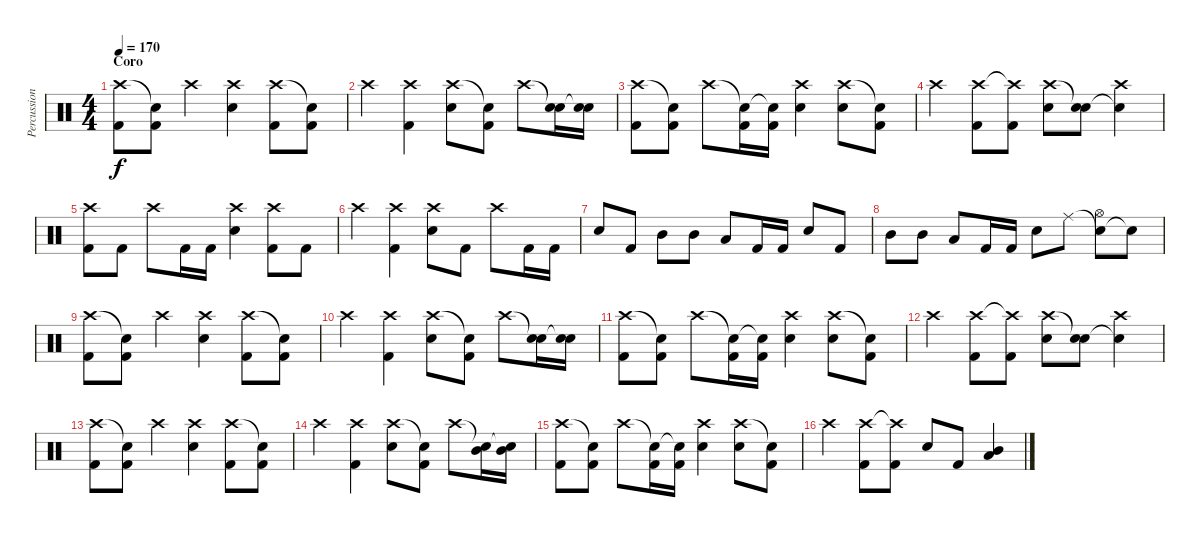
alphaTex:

\track ("Percussion" "Percussion") {instrument percussion}
\staff {score}
\articulation defaults
\ts (4 4)
\section ("" "Coro")
\tempo 170
\clef neutral
\ks c
("Crash high (hit)" "Kick (hit) 2").8{dy f} ("Snare (hit)"{t} "Kick (hit) 2").8 "Crash high (hit)".4 ("Crash high (hit)" "Electric Snare (hit)").4 ("Crash high (hit)" "Kick (hit) 2").8 ("Snare (hit)"{t} "Kick (hit) 2").8 |
"Crash high (hit)".4 ("Crash high (hit)" "Kick (hit) 2").4 ("Crash high (hit)" "Electric Snare (hit)").8 ("Snare (hit)"{t} "Kick (hit) 2").8 "Crash high (hit)".8 ("Snare (hit)"{t} "Electric Snare (hit)").16 ("Snare (hit)"{t} "Electric Snare (hit)").16 |
("Crash high (hit)" "Kick (hit) 2").8 ("Snare (hit)"{t} "Kick (hit) 2").8 "Crash high (hit)".8 ("Snare (hit)"{t} "Kick (hit) 2").16 ("Snare (hit)"{t} "Kick (hit) 2").16 ("Crash high (hit)" "Electric Snare (hit)").4 ("Crash high (hit)" "Electric Snare (hit)").8 ("Snare (hit)"{t} "Kick (hit) 2").8 |
"Crash high (hit)".4 ("Crash high (hit)" "Kick (hit) 2").8 ("Crash high (hit)"{t} "Kick (hit) 2").8 ("Crash high (hit)" "Electric Snare (hit)").8 ("Snare (hit)"{t} "Electric Snare (hit)").8 ("Crash high (hit)" "Snare (hit)"{t}).4 |
("Crash high (hit)" "Kick (hit) 2").8 "Kick (hit) 2".8 "Crash high (hit)".8 "Kick (hit) 2".16 "Kick (hit) 2".16 ("Crash high (hit)" "Electric Snare (hit)").4 ("Crash high (hit)" "Kick (hit) 2").8 "Kick (hit) 2".8 |
"Crash high (hit)".4 ("Crash high (hit)" "Kick (hit) 2").4 ("Crash high (hit)" "Electric Snare (hit)").8 "Kick (hit) 2".8 "Crash high (hit)".8 "Kick (hit) 2".16 "Kick (hit) 2".16 |
"Electric Snare (hit)".8 "Kick (hit) 2".8 "Mid Tom (hit)".8 "Mid Tom (hit)".8 "Low Tom (hit)".8 "Kick (hit) 2".16 "Kick (hit) 2".16 "Electric Snare (hit)".8 "Kick (hit) 2".8 |
"Mid Tom (hit)".8 "Mid Tom (hit)".8 "Low Tom (hit)".8 "Kick (hit) 2".16 "Kick (hit) 2".16 "Electric Snare (hit)".8 "Ride (middle)".8 ("Snare (hit)"{t} "Hi-Hat (open)").8 "Snare (hit)"{t}.8 |
("Crash high (hit)" "Kick (hit) 2").8 ("Snare (hit)"{t} "Kick (hit) 2").8 "Crash high (hit)".4 ("Crash high (hit)" "Electric Snare (hit)").4 ("Crash high (hit)" "Kick (hit) 2").8 ("Snare (hit)"{t} "Kick (hit) 2").8 |
"Crash high (hit)".4 ("Crash high (hit)" "Kick (hit) 2").4 ("Crash high (hit)" "Electric Snare (hit)").8 ("Snare (hit)"{t} "Kick (hit) 2").8 "Crash high (hit)".8 ("Snare (hit)"{t} "Electric Snare (hit)").16 ("Snare (hit)"{t} "Electric Snare (hit)").16 |
("Crash high (hit)" "Kick (hit) 2").8 ("Snare (hit)"{t} "Kick (hit) 2").8 "Crash high (hit)".8 ("Snare (hit)"{t} "Kick (hit) 2").16 ("Snare (hit)"{t} "Kick (hit) 2").16 ("Crash high (hit)" "Electric Snare (hit)").4 ("Crash high (hit)" "Electric Snare (hit)").8 ("Snare (hit)"{t} "Kick (hit) 2").8 |
"Crash high (hit)".4 ("Crash high (hit)" "Kick (hit) 2").8 ("Crash high (hit)"{t} "Kick (hit) 2").8 ("Crash high (hit)" "Electric Snare (hit)").8 ("Snare (hit)"{t} "Electric Snare (hit)").8 ("Crash high (hit)" "Snare (hit)"{t}).4 |
("Crash high (hit)" "Kick (hit) 2").8 ("Snare (hit)"{t} "Kick (hit) 2").8 "Crash high (hit)".4 ("Crash high (hit)" "Electric Snare (hit)").4 ("Crash high (hit)" "Kick (hit) 2").8 ("Snare (hit)"{t} "Kick (hit) 2").8 |
"Crash high (hit)".4 ("Crash high (hit)" "Kick (hit) 2").4 ("Crash high (hit)" "Electric Snare (hit)").8 ("Snare (hit)"{t} "Kick (hit) 2").8 "Crash high (hit)".8 ("Snare (hit)"{t} "Mid Tom (hit)").16 ("Snare (hit)"{t} "Mid Tom (hit)").16 |
("Crash high (hit)" "Kick (hit) 2").8 ("Snare (hit)"{t} "Kick (hit) 2").8 "Crash high (hit)".8 ("Snare (hit)"{t} "Kick (hit) 2").16 ("Snare (hit)"{t} "Kick (hit) 2").16 ("Crash high (hit)" "Electric Snare (hit)").4 ("Crash high (hit)" "Electric Snare (hit)").8 ("Snare (hit)"{t} "Kick (hit) 2").8 |
"Crash high (hit)".4 ("Crash high (hit)" "Kick (hit) 2").8 ("Crash high (hit)"{t} "Kick (hit) 2").8 "Electric Snare (hit)".8 "Kick (hit) 2".8 ("Mid Tom (hit)" "Low Tom (hit)").4
